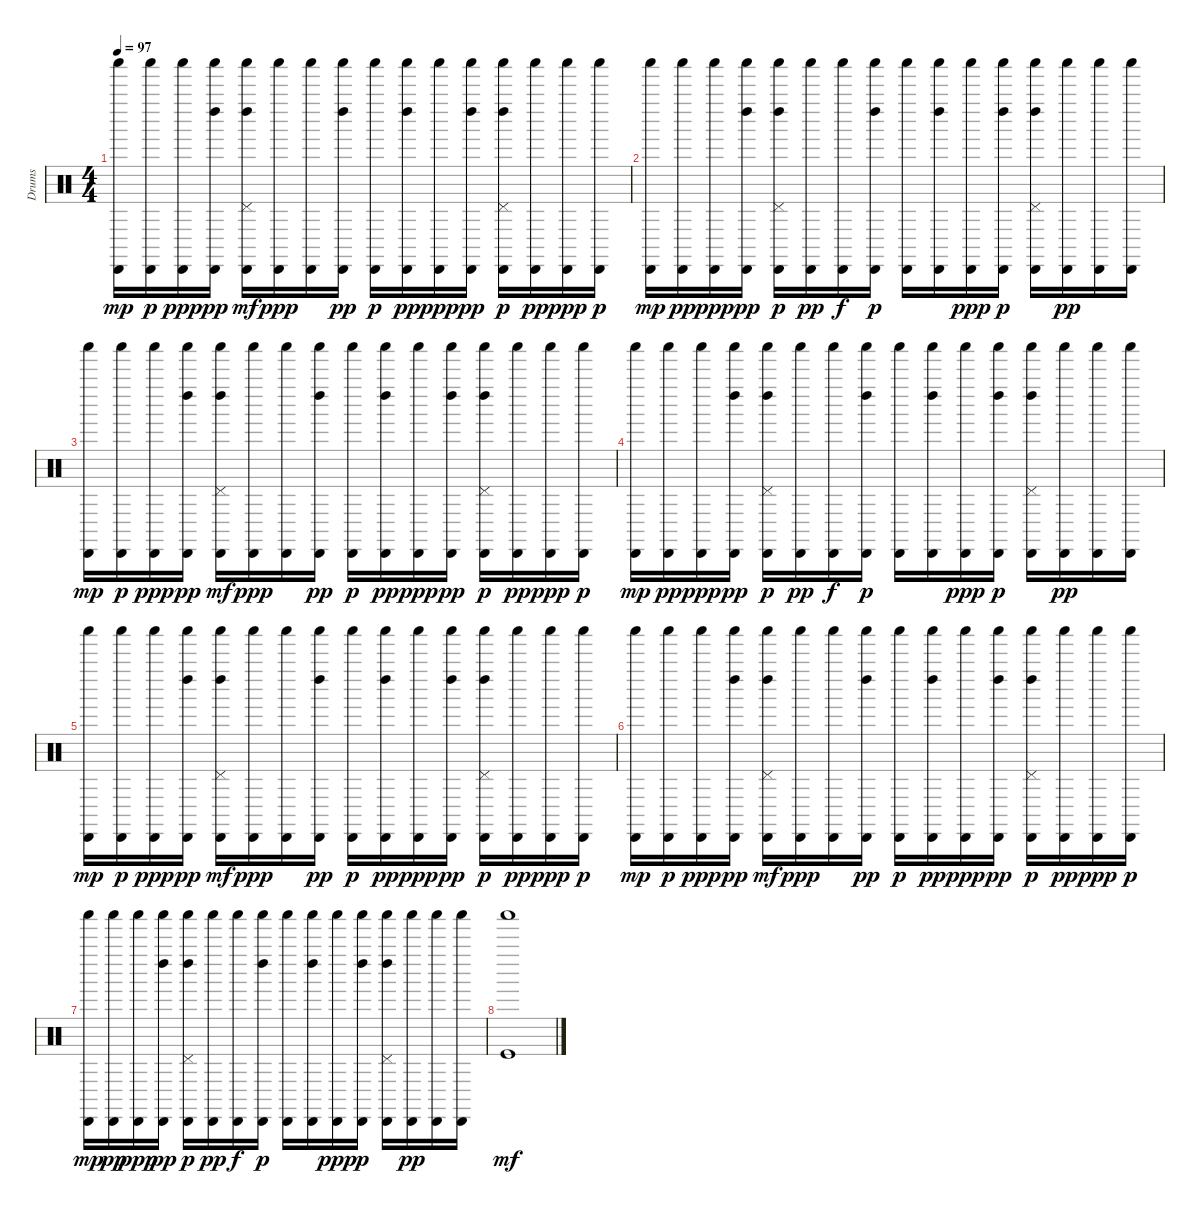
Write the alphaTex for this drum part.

\track ("Drums" "Drums") {instrument percussion}
\staff {score}
\articulation defaults
\ts (4 4)
\tempo 97
\clef neutral
\ks c
("Shaker (hit)" "Cabasa (hit)").16{dy mp} ("Shaker (hit)" "Cabasa (hit)").16{dy p} ("Shaker (hit)" "Cabasa (hit)").16{dy ppp} ("Shaker (hit)" "Cabasa (hit)" "Left Maraca (hit)").16{dy pp} ("Left Maraca (hit)" "Shaker (hit)" "Cabasa (hit)" "Pedal Hi-Hat (hit)").16{dy mf} ("Cabasa (hit)" "Shaker (hit)").16{dy ppp} ("Shaker (hit)" "Cabasa (hit)").16 ("Left Maraca (hit)" "Cabasa (hit)" "Shaker (hit)").16{dy pp} ("Cabasa (hit)" "Shaker (hit)").16{dy p} ("Left Maraca (hit)" "Cabasa (hit)" "Shaker (hit)").16{dy pp} ("Shaker (hit)" "Cabasa (hit)").16{dy ppp} ("Shaker (hit)" "Cabasa (hit)" "Left Maraca (hit)").16{dy pp} ("Left Maraca (hit)" "Shaker (hit)" "Cabasa (hit)" "Pedal Hi-Hat (hit)").16{dy p} ("Cabasa (hit)" "Shaker (hit)").16{dy pp} ("Shaker (hit)" "Cabasa (hit)").16{dy ppp} ("Shaker (hit)" "Cabasa (hit)").16{dy p} |
("Shaker (hit)" "Cabasa (hit)").16{dy mp} ("Cabasa (hit)" "Shaker (hit)").16{dy pp} ("Shaker (hit)" "Cabasa (hit)").16{dy ppp} ("Shaker (hit)" "Cabasa (hit)" "Left Maraca (hit)").16{dy pp} ("Shaker (hit)" "Cabasa (hit)" "Pedal Hi-Hat (hit)" "Left Maraca (hit)").16{dy p} ("Shaker (hit)" "Cabasa (hit)").16{dy pp} ("Shaker (hit)" "Cabasa (hit)").16{dy f} ("Shaker (hit)" "Cabasa (hit)" "Left Maraca (hit)").16{dy p} ("Cabasa (hit)" "Shaker (hit)").16 ("Shaker (hit)" "Cabasa (hit)" "Left Maraca (hit)").16 ("Shaker (hit)" "Cabasa (hit)").16{dy ppp} ("Shaker (hit)" "Cabasa (hit)" "Left Maraca (hit)").16{dy p} ("Pedal Hi-Hat (hit)" "Shaker (hit)" "Cabasa (hit)" "Left Maraca (hit)").16 ("Shaker (hit)" "Cabasa (hit)").16{dy pp} ("Cabasa (hit)" "Shaker (hit)").16 ("Cabasa (hit)" "Shaker (hit)").16 |
("Shaker (hit)" "Cabasa (hit)").16{dy mp} ("Shaker (hit)" "Cabasa (hit)").16{dy p} ("Shaker (hit)" "Cabasa (hit)").16{dy ppp} ("Shaker (hit)" "Cabasa (hit)" "Left Maraca (hit)").16{dy pp} ("Left Maraca (hit)" "Shaker (hit)" "Cabasa (hit)" "Pedal Hi-Hat (hit)").16{dy mf} ("Cabasa (hit)" "Shaker (hit)").16{dy ppp} ("Shaker (hit)" "Cabasa (hit)").16 ("Left Maraca (hit)" "Cabasa (hit)" "Shaker (hit)").16{dy pp} ("Cabasa (hit)" "Shaker (hit)").16{dy p} ("Left Maraca (hit)" "Cabasa (hit)" "Shaker (hit)").16{dy pp} ("Shaker (hit)" "Cabasa (hit)").16{dy ppp} ("Shaker (hit)" "Cabasa (hit)" "Left Maraca (hit)").16{dy pp} ("Left Maraca (hit)" "Shaker (hit)" "Cabasa (hit)" "Pedal Hi-Hat (hit)").16{dy p} ("Cabasa (hit)" "Shaker (hit)").16{dy pp} ("Shaker (hit)" "Cabasa (hit)").16{dy ppp} ("Shaker (hit)" "Cabasa (hit)").16{dy p} |
("Shaker (hit)" "Cabasa (hit)").16{dy mp} ("Cabasa (hit)" "Shaker (hit)").16{dy pp} ("Shaker (hit)" "Cabasa (hit)").16{dy ppp} ("Shaker (hit)" "Cabasa (hit)" "Left Maraca (hit)").16{dy pp} ("Shaker (hit)" "Cabasa (hit)" "Pedal Hi-Hat (hit)" "Left Maraca (hit)").16{dy p} ("Shaker (hit)" "Cabasa (hit)").16{dy pp} ("Shaker (hit)" "Cabasa (hit)").16{dy f} ("Shaker (hit)" "Cabasa (hit)" "Left Maraca (hit)").16{dy p} ("Cabasa (hit)" "Shaker (hit)").16 ("Shaker (hit)" "Cabasa (hit)" "Left Maraca (hit)").16 ("Shaker (hit)" "Cabasa (hit)").16{dy ppp} ("Shaker (hit)" "Cabasa (hit)" "Left Maraca (hit)").16{dy p} ("Pedal Hi-Hat (hit)" "Shaker (hit)" "Cabasa (hit)" "Left Maraca (hit)").16 ("Shaker (hit)" "Cabasa (hit)").16{dy pp} ("Cabasa (hit)" "Shaker (hit)").16 ("Cabasa (hit)" "Shaker (hit)").16 |
("Shaker (hit)" "Cabasa (hit)").16{dy mp} ("Shaker (hit)" "Cabasa (hit)").16{dy p} ("Shaker (hit)" "Cabasa (hit)").16{dy ppp} ("Shaker (hit)" "Cabasa (hit)" "Left Maraca (hit)").16{dy pp} ("Left Maraca (hit)" "Shaker (hit)" "Cabasa (hit)" "Pedal Hi-Hat (hit)").16{dy mf} ("Cabasa (hit)" "Shaker (hit)").16{dy ppp} ("Shaker (hit)" "Cabasa (hit)").16 ("Left Maraca (hit)" "Cabasa (hit)" "Shaker (hit)").16{dy pp} ("Cabasa (hit)" "Shaker (hit)").16{dy p} ("Left Maraca (hit)" "Cabasa (hit)" "Shaker (hit)").16{dy pp} ("Shaker (hit)" "Cabasa (hit)").16{dy ppp} ("Shaker (hit)" "Cabasa (hit)" "Left Maraca (hit)").16{dy pp} ("Left Maraca (hit)" "Shaker (hit)" "Cabasa (hit)" "Pedal Hi-Hat (hit)").16{dy p} ("Cabasa (hit)" "Shaker (hit)").16{dy pp} ("Shaker (hit)" "Cabasa (hit)").16{dy ppp} ("Shaker (hit)" "Cabasa (hit)").16{dy p} |
("Shaker (hit)" "Cabasa (hit)").16{dy mp} ("Shaker (hit)" "Cabasa (hit)").16{dy p} ("Shaker (hit)" "Cabasa (hit)").16{dy ppp} ("Shaker (hit)" "Cabasa (hit)" "Left Maraca (hit)").16{dy pp} ("Left Maraca (hit)" "Shaker (hit)" "Cabasa (hit)" "Pedal Hi-Hat (hit)").16{dy mf} ("Cabasa (hit)" "Shaker (hit)").16{dy ppp} ("Shaker (hit)" "Cabasa (hit)").16 ("Left Maraca (hit)" "Cabasa (hit)" "Shaker (hit)").16{dy pp} ("Cabasa (hit)" "Shaker (hit)").16{dy p} ("Left Maraca (hit)" "Cabasa (hit)" "Shaker (hit)").16{dy pp} ("Shaker (hit)" "Cabasa (hit)").16{dy ppp} ("Shaker (hit)" "Cabasa (hit)" "Left Maraca (hit)").16{dy pp} ("Left Maraca (hit)" "Shaker (hit)" "Cabasa (hit)" "Pedal Hi-Hat (hit)").16{dy p} ("Cabasa (hit)" "Shaker (hit)").16{dy pp} ("Shaker (hit)" "Cabasa (hit)").16{dy ppp} ("Shaker (hit)" "Cabasa (hit)").16{dy p} |
("Shaker (hit)" "Cabasa (hit)").16{dy mp} ("Cabasa (hit)" "Shaker (hit)").16{dy pp} ("Shaker (hit)" "Cabasa (hit)").16{dy ppp} ("Shaker (hit)" "Cabasa (hit)" "Left Maraca (hit)").16{dy pp} ("Shaker (hit)" "Cabasa (hit)" "Pedal Hi-Hat (hit)" "Left Maraca (hit)").16{dy p} ("Shaker (hit)" "Cabasa (hit)").16{dy pp} ("Shaker (hit)" "Cabasa (hit)").16{dy f} ("Shaker (hit)" "Cabasa (hit)" "Left Maraca (hit)").16{dy p} ("Cabasa (hit)" "Shaker (hit)").16 ("Shaker (hit)" "Cabasa (hit)" "Left Maraca (hit)").16 ("Shaker (hit)" "Cabasa (hit)").16{dy ppp} ("Shaker (hit)" "Cabasa (hit)" "Left Maraca (hit)").16{dy p} ("Pedal Hi-Hat (hit)" "Shaker (hit)" "Cabasa (hit)" "Left Maraca (hit)").16 ("Shaker (hit)" "Cabasa (hit)").16{dy pp} ("Cabasa (hit)" "Shaker (hit)").16 ("Cabasa (hit)" "Shaker (hit)").16 |
("Shaker (hit)" "Kick (hit)").1{dy mf}
